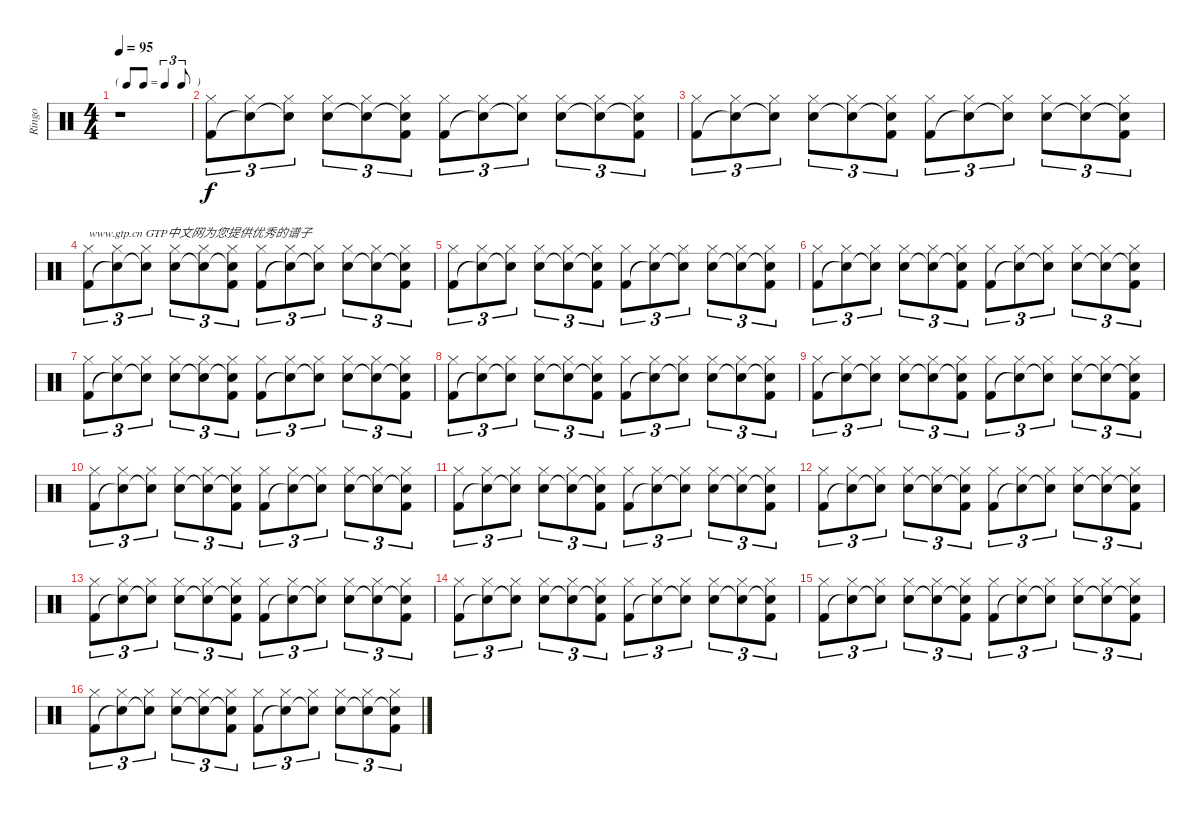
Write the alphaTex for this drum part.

\track ("Ringo" "Ringo") {instrument percussion}
\staff {score}
\articulation defaults
\ts (4 4)
\tf triplet8th
\tempo 95
\clef neutral
\ks c
r.1{dy f} |
("Hi-Hat (closed)" "Kick (hit) 2").8{tu (3 2)} ("Hi-Hat (closed)" "Snare (hit)"{t}).8{tu (3 2)} ("Hi-Hat (closed)" "Snare (hit)"{t}).8{tu (3 2)} ("Hi-Hat (closed)" "Snare (hit) 2").8{tu (3 2)} ("Hi-Hat (closed)" "Snare (hit)"{t}).8{tu (3 2)} ("Hi-Hat (closed)" "Snare (hit)"{t} "Kick (hit) 2").8{tu (3 2)} ("Hi-Hat (closed)" "Kick (hit) 2").8{tu (3 2)} ("Hi-Hat (closed)" "Snare (hit)"{t}).8{tu (3 2)} ("Hi-Hat (closed)" "Snare (hit)"{t}).8{tu (3 2)} ("Hi-Hat (closed)" "Snare (hit) 2").8{tu (3 2)} ("Hi-Hat (closed)" "Snare (hit)"{t}).8{tu (3 2)} ("Hi-Hat (closed)" "Snare (hit)"{t} "Kick (hit) 2").8{tu (3 2)} |
("Hi-Hat (closed)" "Kick (hit) 2").8{tu (3 2)} ("Hi-Hat (closed)" "Snare (hit)"{t}).8{tu (3 2)} ("Hi-Hat (closed)" "Snare (hit)"{t}).8{tu (3 2)} ("Hi-Hat (closed)" "Snare (hit) 2").8{tu (3 2)} ("Hi-Hat (closed)" "Snare (hit)"{t}).8{tu (3 2)} ("Hi-Hat (closed)" "Snare (hit)"{t} "Kick (hit) 2").8{tu (3 2)} ("Hi-Hat (closed)" "Kick (hit) 2").8{tu (3 2)} ("Hi-Hat (closed)" "Snare (hit)"{t}).8{tu (3 2)} ("Hi-Hat (closed)" "Snare (hit)"{t}).8{tu (3 2)} ("Hi-Hat (closed)" "Snare (hit) 2").8{tu (3 2)} ("Hi-Hat (closed)" "Snare (hit)"{t}).8{tu (3 2)} ("Hi-Hat (closed)" "Snare (hit)"{t} "Kick (hit) 2").8{tu (3 2)} |
("Hi-Hat (closed)" "Kick (hit) 2").8{tu (3 2) txt "www.gtp.cn GTP中文网为您提供优秀的谱子"} ("Hi-Hat (closed)" "Snare (hit)"{t}).8{tu (3 2)} ("Hi-Hat (closed)" "Snare (hit)"{t}).8{tu (3 2)} ("Hi-Hat (closed)" "Snare (hit) 2").8{tu (3 2)} ("Hi-Hat (closed)" "Snare (hit)"{t}).8{tu (3 2)} ("Hi-Hat (closed)" "Snare (hit)"{t} "Kick (hit) 2").8{tu (3 2)} ("Hi-Hat (closed)" "Kick (hit) 2").8{tu (3 2)} ("Hi-Hat (closed)" "Snare (hit)"{t}).8{tu (3 2)} ("Hi-Hat (closed)" "Snare (hit)"{t}).8{tu (3 2)} ("Hi-Hat (closed)" "Snare (hit) 2").8{tu (3 2)} ("Hi-Hat (closed)" "Snare (hit)"{t}).8{tu (3 2)} ("Hi-Hat (closed)" "Snare (hit)"{t} "Kick (hit) 2").8{tu (3 2)} |
("Hi-Hat (closed)" "Kick (hit) 2").8{tu (3 2)} ("Hi-Hat (closed)" "Snare (hit)"{t}).8{tu (3 2)} ("Hi-Hat (closed)" "Snare (hit)"{t}).8{tu (3 2)} ("Hi-Hat (closed)" "Snare (hit) 2").8{tu (3 2)} ("Hi-Hat (closed)" "Snare (hit)"{t}).8{tu (3 2)} ("Hi-Hat (closed)" "Snare (hit)"{t} "Kick (hit) 2").8{tu (3 2)} ("Hi-Hat (closed)" "Kick (hit) 2").8{tu (3 2)} ("Hi-Hat (closed)" "Snare (hit)"{t}).8{tu (3 2)} ("Hi-Hat (closed)" "Snare (hit)"{t}).8{tu (3 2)} ("Hi-Hat (closed)" "Snare (hit) 2").8{tu (3 2)} ("Hi-Hat (closed)" "Snare (hit)"{t}).8{tu (3 2)} ("Hi-Hat (closed)" "Snare (hit)"{t} "Kick (hit) 2").8{tu (3 2)} |
("Hi-Hat (closed)" "Kick (hit) 2").8{tu (3 2)} ("Hi-Hat (closed)" "Snare (hit)"{t}).8{tu (3 2)} ("Hi-Hat (closed)" "Snare (hit)"{t}).8{tu (3 2)} ("Hi-Hat (closed)" "Snare (hit) 2").8{tu (3 2)} ("Hi-Hat (closed)" "Snare (hit)"{t}).8{tu (3 2)} ("Hi-Hat (closed)" "Snare (hit)"{t} "Kick (hit) 2").8{tu (3 2)} ("Hi-Hat (closed)" "Kick (hit) 2").8{tu (3 2)} ("Hi-Hat (closed)" "Snare (hit)"{t}).8{tu (3 2)} ("Hi-Hat (closed)" "Snare (hit)"{t}).8{tu (3 2)} ("Hi-Hat (closed)" "Snare (hit) 2").8{tu (3 2)} ("Hi-Hat (closed)" "Snare (hit)"{t}).8{tu (3 2)} ("Hi-Hat (closed)" "Snare (hit)"{t} "Kick (hit) 2").8{tu (3 2)} |
("Hi-Hat (closed)" "Kick (hit) 2").8{tu (3 2)} ("Hi-Hat (closed)" "Snare (hit)"{t}).8{tu (3 2)} ("Hi-Hat (closed)" "Snare (hit)"{t}).8{tu (3 2)} ("Hi-Hat (closed)" "Snare (hit) 2").8{tu (3 2)} ("Hi-Hat (closed)" "Snare (hit)"{t}).8{tu (3 2)} ("Hi-Hat (closed)" "Snare (hit)"{t} "Kick (hit) 2").8{tu (3 2)} ("Hi-Hat (closed)" "Kick (hit) 2").8{tu (3 2)} ("Hi-Hat (closed)" "Snare (hit)"{t}).8{tu (3 2)} ("Hi-Hat (closed)" "Snare (hit)"{t}).8{tu (3 2)} ("Hi-Hat (closed)" "Snare (hit) 2").8{tu (3 2)} ("Hi-Hat (closed)" "Snare (hit)"{t}).8{tu (3 2)} ("Hi-Hat (closed)" "Snare (hit)"{t} "Kick (hit) 2").8{tu (3 2)} |
("Hi-Hat (closed)" "Kick (hit) 2").8{tu (3 2)} ("Hi-Hat (closed)" "Snare (hit)"{t}).8{tu (3 2)} ("Hi-Hat (closed)" "Snare (hit)"{t}).8{tu (3 2)} ("Hi-Hat (closed)" "Snare (hit) 2").8{tu (3 2)} ("Hi-Hat (closed)" "Snare (hit)"{t}).8{tu (3 2)} ("Hi-Hat (closed)" "Snare (hit)"{t} "Kick (hit) 2").8{tu (3 2)} ("Hi-Hat (closed)" "Kick (hit) 2").8{tu (3 2)} ("Hi-Hat (closed)" "Snare (hit)"{t}).8{tu (3 2)} ("Hi-Hat (closed)" "Snare (hit)"{t}).8{tu (3 2)} ("Hi-Hat (closed)" "Snare (hit) 2").8{tu (3 2)} ("Hi-Hat (closed)" "Snare (hit)"{t}).8{tu (3 2)} ("Hi-Hat (closed)" "Snare (hit)"{t} "Kick (hit) 2").8{tu (3 2)} |
("Hi-Hat (closed)" "Kick (hit) 2").8{tu (3 2)} ("Hi-Hat (closed)" "Snare (hit)"{t}).8{tu (3 2)} ("Hi-Hat (closed)" "Snare (hit)"{t}).8{tu (3 2)} ("Hi-Hat (closed)" "Snare (hit) 2").8{tu (3 2)} ("Hi-Hat (closed)" "Snare (hit)"{t}).8{tu (3 2)} ("Hi-Hat (closed)" "Snare (hit)"{t} "Kick (hit) 2").8{tu (3 2)} ("Hi-Hat (closed)" "Kick (hit) 2").8{tu (3 2)} ("Hi-Hat (closed)" "Snare (hit)"{t}).8{tu (3 2)} ("Hi-Hat (closed)" "Snare (hit)"{t}).8{tu (3 2)} ("Hi-Hat (closed)" "Snare (hit) 2").8{tu (3 2)} ("Hi-Hat (closed)" "Snare (hit)"{t}).8{tu (3 2)} ("Hi-Hat (closed)" "Snare (hit)"{t} "Kick (hit) 2").8{tu (3 2)} |
("Hi-Hat (closed)" "Kick (hit) 2").8{tu (3 2)} ("Hi-Hat (closed)" "Snare (hit)"{t}).8{tu (3 2)} ("Hi-Hat (closed)" "Snare (hit)"{t}).8{tu (3 2)} ("Hi-Hat (closed)" "Snare (hit) 2").8{tu (3 2)} ("Hi-Hat (closed)" "Snare (hit)"{t}).8{tu (3 2)} ("Hi-Hat (closed)" "Snare (hit)"{t} "Kick (hit) 2").8{tu (3 2)} ("Hi-Hat (closed)" "Kick (hit) 2").8{tu (3 2)} ("Hi-Hat (closed)" "Snare (hit)"{t}).8{tu (3 2)} ("Hi-Hat (closed)" "Snare (hit)"{t}).8{tu (3 2)} ("Hi-Hat (closed)" "Snare (hit) 2").8{tu (3 2)} ("Hi-Hat (closed)" "Snare (hit)"{t}).8{tu (3 2)} ("Hi-Hat (closed)" "Snare (hit)"{t} "Kick (hit) 2").8{tu (3 2)} |
("Hi-Hat (closed)" "Kick (hit) 2").8{tu (3 2)} ("Hi-Hat (closed)" "Snare (hit)"{t}).8{tu (3 2)} ("Hi-Hat (closed)" "Snare (hit)"{t}).8{tu (3 2)} ("Hi-Hat (closed)" "Snare (hit) 2").8{tu (3 2)} ("Hi-Hat (closed)" "Snare (hit)"{t}).8{tu (3 2)} ("Hi-Hat (closed)" "Snare (hit)"{t} "Kick (hit) 2").8{tu (3 2)} ("Hi-Hat (closed)" "Kick (hit) 2").8{tu (3 2)} ("Hi-Hat (closed)" "Snare (hit)"{t}).8{tu (3 2)} ("Hi-Hat (closed)" "Snare (hit)"{t}).8{tu (3 2)} ("Hi-Hat (closed)" "Snare (hit) 2").8{tu (3 2)} ("Hi-Hat (closed)" "Snare (hit)"{t}).8{tu (3 2)} ("Hi-Hat (closed)" "Snare (hit)"{t} "Kick (hit) 2").8{tu (3 2)} |
("Hi-Hat (closed)" "Kick (hit) 2").8{tu (3 2)} ("Hi-Hat (closed)" "Snare (hit)"{t}).8{tu (3 2)} ("Hi-Hat (closed)" "Snare (hit)"{t}).8{tu (3 2)} ("Hi-Hat (closed)" "Snare (hit) 2").8{tu (3 2)} ("Hi-Hat (closed)" "Snare (hit)"{t}).8{tu (3 2)} ("Hi-Hat (closed)" "Snare (hit)"{t} "Kick (hit) 2").8{tu (3 2)} ("Hi-Hat (closed)" "Kick (hit) 2").8{tu (3 2)} ("Hi-Hat (closed)" "Snare (hit)"{t}).8{tu (3 2)} ("Hi-Hat (closed)" "Snare (hit)"{t}).8{tu (3 2)} ("Hi-Hat (closed)" "Snare (hit) 2").8{tu (3 2)} ("Hi-Hat (closed)" "Snare (hit)"{t}).8{tu (3 2)} ("Hi-Hat (closed)" "Snare (hit)"{t} "Kick (hit) 2").8{tu (3 2)} |
("Hi-Hat (closed)" "Kick (hit) 2").8{tu (3 2)} ("Hi-Hat (closed)" "Snare (hit)"{t}).8{tu (3 2)} ("Hi-Hat (closed)" "Snare (hit)"{t}).8{tu (3 2)} ("Hi-Hat (closed)" "Snare (hit) 2").8{tu (3 2)} ("Hi-Hat (closed)" "Snare (hit)"{t}).8{tu (3 2)} ("Hi-Hat (closed)" "Snare (hit)"{t} "Kick (hit) 2").8{tu (3 2)} ("Hi-Hat (closed)" "Kick (hit) 2").8{tu (3 2)} ("Hi-Hat (closed)" "Snare (hit)"{t}).8{tu (3 2)} ("Hi-Hat (closed)" "Snare (hit)"{t}).8{tu (3 2)} ("Hi-Hat (closed)" "Snare (hit) 2").8{tu (3 2)} ("Hi-Hat (closed)" "Snare (hit)"{t}).8{tu (3 2)} ("Hi-Hat (closed)" "Snare (hit)"{t} "Kick (hit) 2").8{tu (3 2)} |
("Hi-Hat (closed)" "Kick (hit) 2").8{tu (3 2)} ("Hi-Hat (closed)" "Snare (hit)"{t}).8{tu (3 2)} ("Hi-Hat (closed)" "Snare (hit)"{t}).8{tu (3 2)} ("Hi-Hat (closed)" "Snare (hit) 2").8{tu (3 2)} ("Hi-Hat (closed)" "Snare (hit)"{t}).8{tu (3 2)} ("Hi-Hat (closed)" "Snare (hit)"{t} "Kick (hit) 2").8{tu (3 2)} ("Hi-Hat (closed)" "Kick (hit) 2").8{tu (3 2)} ("Hi-Hat (closed)" "Snare (hit)"{t}).8{tu (3 2)} ("Hi-Hat (closed)" "Snare (hit)"{t}).8{tu (3 2)} ("Hi-Hat (closed)" "Snare (hit) 2").8{tu (3 2)} ("Hi-Hat (closed)" "Snare (hit)"{t}).8{tu (3 2)} ("Hi-Hat (closed)" "Snare (hit)"{t} "Kick (hit) 2").8{tu (3 2)} |
("Hi-Hat (closed)" "Kick (hit) 2").8{tu (3 2)} ("Hi-Hat (closed)" "Snare (hit)"{t}).8{tu (3 2)} ("Hi-Hat (closed)" "Snare (hit)"{t}).8{tu (3 2)} ("Hi-Hat (closed)" "Snare (hit) 2").8{tu (3 2)} ("Hi-Hat (closed)" "Snare (hit)"{t}).8{tu (3 2)} ("Hi-Hat (closed)" "Snare (hit)"{t} "Kick (hit) 2").8{tu (3 2)} ("Hi-Hat (closed)" "Kick (hit) 2").8{tu (3 2)} ("Hi-Hat (closed)" "Snare (hit)"{t}).8{tu (3 2)} ("Hi-Hat (closed)" "Snare (hit)"{t}).8{tu (3 2)} ("Hi-Hat (closed)" "Snare (hit) 2").8{tu (3 2)} ("Hi-Hat (closed)" "Snare (hit)"{t}).8{tu (3 2)} ("Hi-Hat (closed)" "Snare (hit)"{t} "Kick (hit) 2").8{tu (3 2)} |
("Hi-Hat (closed)" "Kick (hit) 2").8{tu (3 2)} ("Hi-Hat (closed)" "Snare (hit)"{t}).8{tu (3 2)} ("Hi-Hat (closed)" "Snare (hit)"{t}).8{tu (3 2)} ("Hi-Hat (closed)" "Snare (hit) 2").8{tu (3 2)} ("Hi-Hat (closed)" "Snare (hit)"{t}).8{tu (3 2)} ("Hi-Hat (closed)" "Snare (hit)"{t} "Kick (hit) 2").8{tu (3 2)} ("Hi-Hat (closed)" "Kick (hit) 2").8{tu (3 2)} ("Hi-Hat (closed)" "Snare (hit)"{t}).8{tu (3 2)} ("Hi-Hat (closed)" "Snare (hit)"{t}).8{tu (3 2)} ("Hi-Hat (closed)" "Snare (hit) 2").8{tu (3 2)} ("Hi-Hat (closed)" "Snare (hit)"{t}).8{tu (3 2)} ("Hi-Hat (closed)" "Snare (hit)"{t} "Kick (hit) 2").8{tu (3 2)}
